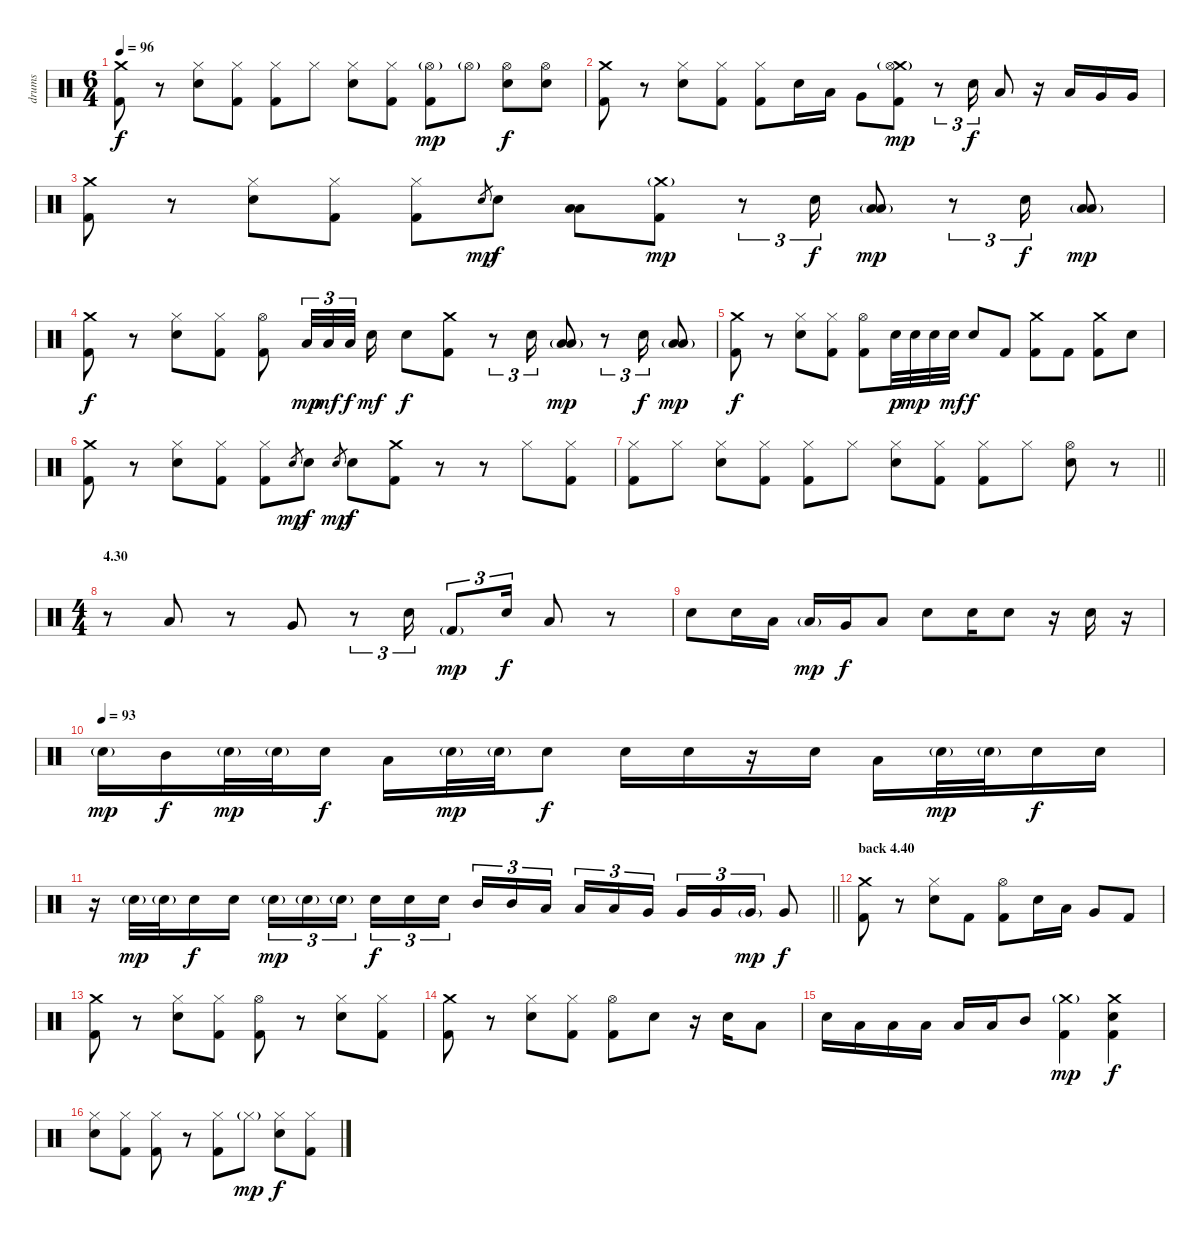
\track ("drums" "drums") {instrument percussion}
\staff {score}
\articulation defaults
\ts (6 4)
\tempo 96
\clef neutral
\ks c
("Crash medium (hit)" "Kick (hit) 2").8{dy f} r.8 ("Hi-Hat (closed)" "Electric Snare (hit)").8 ("Hi-Hat (closed)" "Kick (hit) 2").8 ("Hi-Hat (closed)" "Kick (hit) 2").8 "Hi-Hat (closed)".8 ("Hi-Hat (closed)" "Electric Snare (hit)").8 ("Hi-Hat (closed)" "Kick (hit) 2").8 ("Hi-Hat (open)"{g} "Kick (hit) 2").8{dy mp} "Hi-Hat (open)"{g}.8 ("Hi-Hat (open)" "Electric Snare (hit)").8{dy f} ("Hi-Hat (open)" "Electric Snare (hit)").8 |
("Crash medium (hit)" "Kick (hit) 2").8 r.8 ("Hi-Hat (closed)" "Electric Snare (hit)").8 ("Hi-Hat (closed)" "Kick (hit) 2").8 ("Hi-Hat (closed)" "Kick (hit) 2").8 "Electric Snare (hit)".16 "Low Tom (hit)".16 "Very Low Tom (hit)".8 ("Crash medium (hit)"{g} "Hi-Hat (open)"{g} "Kick (hit) 2").8{dy mp} r.8{tu (3 2)} "Electric Snare (hit)".16{tu (3 2) dy f} "Low Tom (hit)".8 r.16 "Low Floor Tom (hit)".16 "Very Low Tom (hit)".16 "Very Low Tom (hit)".16 |
("Crash medium (hit)" "Kick (hit) 2").8 r.8 ("Hi-Hat (closed)" "Electric Snare (hit)").8 ("Hi-Hat (closed)" "Kick (hit) 2").8 ("Hi-Hat (closed)" "Kick (hit) 2").8 "Electric Snare (hit)".8{gr dy mp} "Electric Snare (hit)".8{dy f} ("Low Tom (hit)" "Low Floor Tom (hit)").8 ("Crash medium (hit)"{g} "Kick (hit) 2").8{dy mp} r.8{tu (3 2)} "Electric Snare (hit)".16{tu (3 2) dy f} ("Low Tom (hit)" "Low Floor Tom (hit)"{g}).8{dy mp} r.8{tu (3 2)} "Electric Snare (hit)".16{tu (3 2) dy f} ("Low Tom (hit)" "Low Floor Tom (hit)"{g}).8{dy mp} |
("Crash medium (hit)" "Kick (hit) 2").8{dy f} r.8 ("Hi-Hat (closed)" "Electric Snare (hit)").8 ("Hi-Hat (closed)" "Kick (hit) 2").8 ("Hi-Hat (open)" "Kick (hit) 2").8 "Low Tom (hit)".32{tu (3 2) dy mp} "Low Tom (hit)".32{tu (3 2) dy mf} "Low Tom (hit)".32{tu (3 2) dy f beam splitsecondary} "Electric Snare (hit)".16{dy mf} "Electric Snare (hit)".8{dy f} ("Crash medium (hit)" "Kick (hit) 2").8 r.8{tu (3 2)} "Electric Snare (hit)".16{tu (3 2)} ("Low Tom (hit)" "Low Floor Tom (hit)"{g}).8{dy mp} r.8{tu (3 2)} "Electric Snare (hit)".16{tu (3 2) dy f} ("Low Tom (hit)" "Low Floor Tom (hit)"{g}).8{dy mp} |
("Crash medium (hit)" "Kick (hit) 2").8{dy f} r.8 ("Hi-Hat (closed)" "Electric Snare (hit)").8 ("Hi-Hat (closed)" "Kick (hit) 2").8 ("Hi-Hat (open)" "Kick (hit) 2").8 "Electric Snare (hit)".32{dy p} "Electric Snare (hit)".32{dy mp} "Electric Snare (hit)".32 "Electric Snare (hit)".32{dy mf} "Electric Snare (hit)".8{dy f} "Kick (hit) 2".8 ("Crash medium (hit)" "Kick (hit) 2").8 "Kick (hit) 2".8 ("Crash medium (hit)" "Kick (hit) 2").8 "Electric Snare (hit)".8 |
("Crash medium (hit)" "Kick (hit) 2").8 r.8 ("Hi-Hat (closed)" "Electric Snare (hit)").8 ("Hi-Hat (closed)" "Kick (hit) 2").8 ("Hi-Hat (closed)" "Kick (hit) 2").8 "Electric Snare (hit)".8{gr dy mp} "Electric Snare (hit)".8{dy f} "Electric Snare (hit)".8{gr dy mp} "Electric Snare (hit)".8{dy f} ("Crash medium (hit)" "Kick (hit) 2").8 r.8 r.8 "Hi-Hat (closed)".8 ("Hi-Hat (closed)" "Kick (hit) 2").8 |
\barLineRight lightlight
("Hi-Hat (closed)" "Kick (hit) 2").8 "Hi-Hat (closed)".8 ("Hi-Hat (closed)" "Electric Snare (hit)").8 ("Hi-Hat (closed)" "Kick (hit) 2").8 ("Hi-Hat (closed)" "Kick (hit) 2").8 "Hi-Hat (closed)".8 ("Hi-Hat (closed)" "Electric Snare (hit)").8 ("Hi-Hat (closed)" "Kick (hit) 2").8 ("Hi-Hat (closed)" "Kick (hit) 2").8 "Hi-Hat (closed)".8 ("Hi-Hat (open)" "Electric Snare (hit)").8 r.8 |
\ts (4 4)
\section ("" "4.30")
r.8 "Low Tom (hit)".8 r.8 "Very Low Tom (hit)".8 r.8{tu (3 2)} "Electric Snare (hit)".16{tu (3 2)} "Kick (hit) 2"{g}.8{tu (3 2) dy mp} "Electric Snare (hit)".16{tu (3 2) dy f} "Low Tom (hit)".8 r.8 |
"Electric Snare (hit)".8 "Electric Snare (hit)".16 "Low Floor Tom (hit)".16 "Low Floor Tom (hit)"{g}.16{dy mp} "Very Low Tom (hit)".16{dy f} "Low Tom (hit)".8 "Electric Snare (hit)".8 "Electric Snare (hit)".16 "Electric Snare (hit)".8 r.16 "Electric Snare (hit)".16 r.16 |
\tempo (93)
"Electric Snare (hit)"{g}.16{dy mp} "Mid Tom (hit)".16{dy f} "Electric Snare (hit)"{g}.32{dy mp} "Electric Snare (hit)"{g}.32 "Electric Snare (hit)".16{dy f} "Low Tom (hit)".16 "Electric Snare (hit)"{g}.32{dy mp} "Electric Snare (hit)"{g}.32 "Electric Snare (hit)".8{dy f} "Electric Snare (hit)".16 "Electric Snare (hit)".16 r.16 "Electric Snare (hit)".16 "Low Tom (hit)".16 "Electric Snare (hit)"{g}.32{dy mp} "Electric Snare (hit)"{g}.32 "Electric Snare (hit)".16{dy f} "Electric Snare (hit)".16 |
\barLineRight lightlight
r.16 "Electric Snare (hit)"{g}.32{dy mp} "Electric Snare (hit)"{g}.32 "Electric Snare (hit)".16{dy f} "Electric Snare (hit)".16 "Electric Snare (hit)"{g}.16{tu (3 2) dy mp} "Electric Snare (hit)"{g}.16{tu (3 2)} "Electric Snare (hit)"{g}.16{tu (3 2) beam splitsecondary} "Electric Snare (hit)".16{tu (3 2) dy f} "Electric Snare (hit)".16{tu (3 2)} "Electric Snare (hit)".16{tu (3 2)} "Mid Tom (hit)".16{tu (3 2)} "Mid Tom (hit)".16{tu (3 2)} "Low Tom (hit)".16{tu (3 2) beam splitsecondary} "Low Tom (hit)".16{tu (3 2)} "Low Tom (hit)".16{tu (3 2)} "Very Low Tom (hit)".16{tu (3 2)} "Very Low Tom (hit)".16{tu (3 2)} "Very Low Tom (hit)".16{tu (3 2)} "Very Low Tom (hit)"{g}.16{tu (3 2) dy mp} "Very Low Tom (hit)".8{dy f} |
\section ("" "back 4.40")
("Crash medium (hit)" "Kick (hit) 2").8 r.8 ("Hi-Hat (closed)" "Electric Snare (hit)").8 "Kick (hit) 2".8 ("Hi-Hat (open)" "Kick (hit) 2").8 "Electric Snare (hit)".16 "Low Tom (hit)".16 "Very Low Tom (hit)".8 "Kick (hit) 2".8 |
("Crash medium (hit)" "Kick (hit) 2").8 r.8 ("Hi-Hat (closed)" "Electric Snare (hit)").8 ("Hi-Hat (closed)" "Kick (hit) 2").8 ("Hi-Hat (open)" "Kick (hit) 2").8 r.8 ("Hi-Hat (closed)" "Electric Snare (hit)").8 ("Hi-Hat (closed)" "Kick (hit) 2").8 |
("Crash medium (hit)" "Kick (hit) 2").8 r.8 ("Hi-Hat (closed)" "Electric Snare (hit)").8 ("Hi-Hat (closed)" "Kick (hit) 2").8 ("Hi-Hat (open)" "Kick (hit) 2").8 "Electric Snare (hit)".8 r.16 "Electric Snare (hit)".16 "Low Tom (hit)".8 |
"Electric Snare (hit)".16 "Low Tom (hit)".16 "Low Tom (hit)".16 "Low Tom (hit)".16 "Low Tom (hit)".16 "Low Tom (hit)".16 "Mid Tom (hit)".8 ("Crash medium (hit)"{g} "Kick (hit) 2").4{dy mp} ("Crash medium (hit)" "Electric Snare (hit)" "Kick (hit) 2").4{dy f} |
("Hi-Hat (closed)" "Electric Snare (hit)").8 ("Hi-Hat (closed)" "Kick (hit) 2").8 ("Hi-Hat (closed)" "Kick (hit) 2").8 r.8 ("Hi-Hat (closed)" "Kick (hit) 2").8 "Hi-Hat (closed)"{g}.8{dy mp} ("Hi-Hat (closed)" "Electric Snare (hit)").8{dy f} ("Hi-Hat (closed)" "Kick (hit) 2").8
